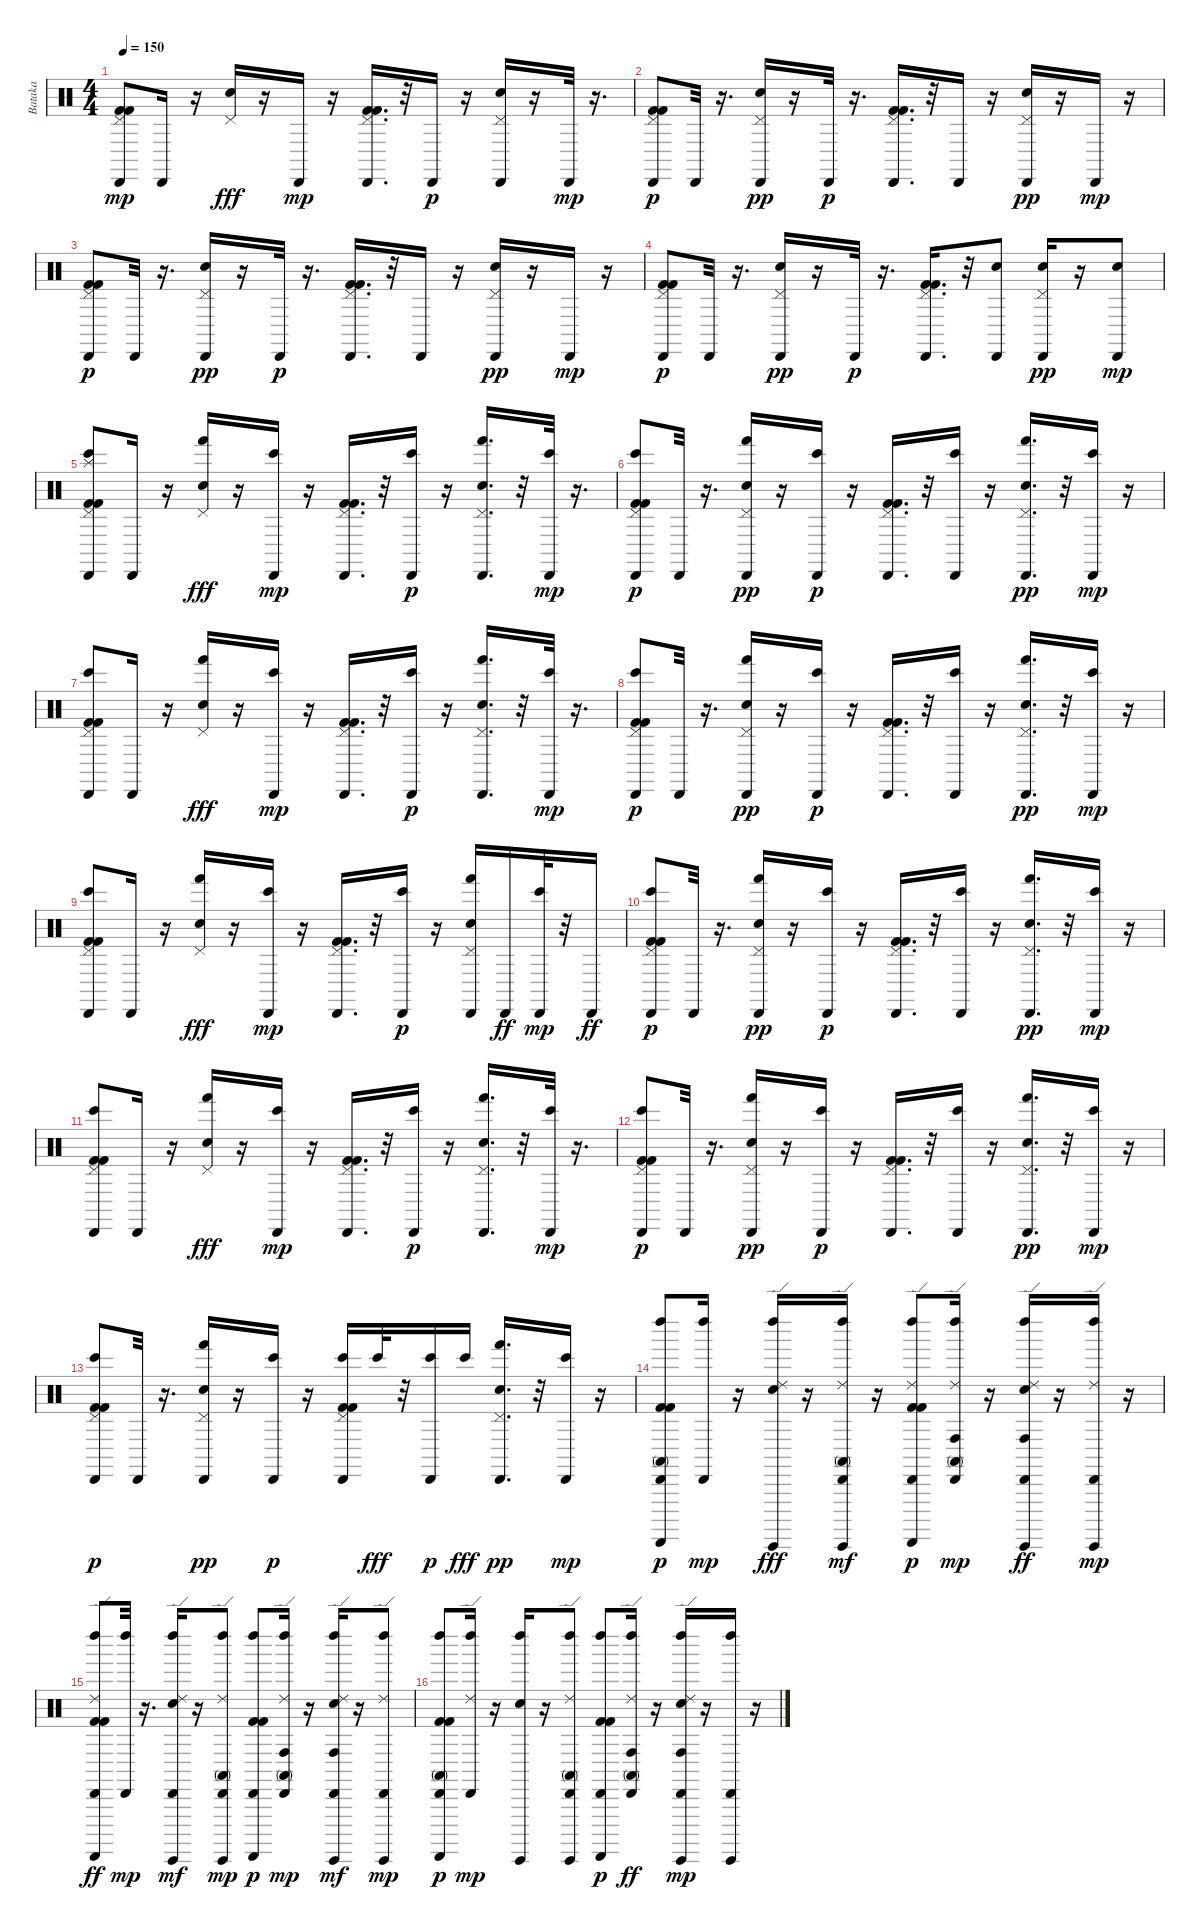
\track ("Bataka" "Bataka") {instrument percussion}
\staff {score}
\articulation defaults
\ts (4 4)
\tempo 150
\clef neutral
\ks c
("Kick (hit) 2" "Kick (hit) 2" "Pedal Hi-Hat (hit)" "Cabasa (hit)").8{dy mp} "Cabasa (hit)".16 r.16 ("Electric Snare (hit)" "Pedal Hi-Hat (hit)").16{dy fff} r.16 "Cabasa (hit)".16{dy mp} r.16 ("Kick (hit) 2" "Kick (hit) 2" "Pedal Hi-Hat (hit)" "Cabasa (hit)").16{d} r.32 "Cabasa (hit)".16{dy p} r.16 ("Electric Snare (hit)" "Pedal Hi-Hat (hit)" "Cabasa (hit)").16 r.16 "Cabasa (hit)".32{dy mp} r.16{d} |
("Kick (hit) 2" "Kick (hit) 2" "Pedal Hi-Hat (hit)" "Cabasa (hit)").8{dy p} "Cabasa (hit)".32 r.16{d} ("Electric Snare (hit)" "Pedal Hi-Hat (hit)" "Cabasa (hit)").16{dy pp} r.16 "Cabasa (hit)".32{dy p} r.16{d} ("Kick (hit) 2" "Kick (hit) 2" "Pedal Hi-Hat (hit)" "Cabasa (hit)").16{d} r.32 "Cabasa (hit)".16 r.16 ("Electric Snare (hit)" "Pedal Hi-Hat (hit)" "Cabasa (hit)").16{dy pp} r.16 "Cabasa (hit)".16{dy mp} r.16 |
("Kick (hit) 2" "Kick (hit) 2" "Pedal Hi-Hat (hit)" "Cabasa (hit)").8{dy p} "Cabasa (hit)".32 r.16{d} ("Electric Snare (hit)" "Pedal Hi-Hat (hit)" "Cabasa (hit)").16{dy pp} r.16 "Cabasa (hit)".32{dy p} r.16{d} ("Kick (hit) 2" "Kick (hit) 2" "Pedal Hi-Hat (hit)" "Cabasa (hit)").16{d} r.32 "Cabasa (hit)".16 r.16 ("Electric Snare (hit)" "Pedal Hi-Hat (hit)" "Cabasa (hit)").16{dy pp} r.16 "Cabasa (hit)".16{dy mp} r.16 |
("Kick (hit) 2" "Kick (hit) 2" "Pedal Hi-Hat (hit)" "Cabasa (hit)").8{dy p} "Cabasa (hit)".32 r.16{d} ("Electric Snare (hit)" "Pedal Hi-Hat (hit)" "Cabasa (hit)").16{dy pp} r.16 "Cabasa (hit)".32{dy p} r.16{d} ("Kick (hit) 2" "Kick (hit) 2" "Pedal Hi-Hat (hit)" "Cabasa (hit)").16{d} r.32 ("Electric Snare (hit)" "Cabasa (hit)").8 ("Electric Snare (hit)" "Pedal Hi-Hat (hit)" "Cabasa (hit)").16{dy pp} r.16 ("Electric Snare (hit)" "Cabasa (hit)").8{dy mp} |
("Kick (hit) 2" "Kick (hit) 2" "Pedal Hi-Hat (hit)" "Bongo High (hit)" "Cabasa (hit)" "Splash (hit)").8 "Cabasa (hit)".16 r.16 ("Electric Snare (hit)" "Pedal Hi-Hat (hit)" "Hand (hit)").16{dy fff} r.16 ("Bongo High (hit)" "Cabasa (hit)").16{dy mp} r.16 ("Kick (hit) 2" "Kick (hit) 2" "Pedal Hi-Hat (hit)" "Cabasa (hit)").16{d} r.32 ("Bongo High (hit)" "Cabasa (hit)").16{dy p} r.16 ("Electric Snare (hit)" "Pedal Hi-Hat (hit)" "Hand (hit)" "Cabasa (hit)").16{d} r.32 ("Bongo High (hit)" "Cabasa (hit)").32{dy mp} r.16{d} |
("Kick (hit) 2" "Kick (hit) 2" "Pedal Hi-Hat (hit)" "Bongo High (hit)" "Cabasa (hit)").8{dy p} "Cabasa (hit)".32 r.16{d} ("Electric Snare (hit)" "Pedal Hi-Hat (hit)" "Hand (hit)" "Cabasa (hit)").16{dy pp} r.16 ("Bongo High (hit)" "Cabasa (hit)").16{dy p} r.16 ("Kick (hit) 2" "Kick (hit) 2" "Pedal Hi-Hat (hit)" "Cabasa (hit)").16{d} r.32 ("Bongo High (hit)" "Cabasa (hit)").16 r.16 ("Electric Snare (hit)" "Pedal Hi-Hat (hit)" "Hand (hit)" "Cabasa (hit)").16{d dy pp} r.32 ("Bongo High (hit)" "Cabasa (hit)").16{dy mp} r.16 |
("Kick (hit) 2" "Kick (hit) 2" "Pedal Hi-Hat (hit)" "Bongo High (hit)" "Cabasa (hit)").8 "Cabasa (hit)".16 r.16 ("Electric Snare (hit)" "Pedal Hi-Hat (hit)" "Hand (hit)").16{dy fff} r.16 ("Bongo High (hit)" "Cabasa (hit)").16{dy mp} r.16 ("Kick (hit) 2" "Kick (hit) 2" "Pedal Hi-Hat (hit)" "Cabasa (hit)").16{d} r.32 ("Bongo High (hit)" "Cabasa (hit)").16{dy p} r.16 ("Electric Snare (hit)" "Pedal Hi-Hat (hit)" "Hand (hit)" "Cabasa (hit)").16{d} r.32 ("Bongo High (hit)" "Cabasa (hit)").32{dy mp} r.16{d} |
("Kick (hit) 2" "Kick (hit) 2" "Pedal Hi-Hat (hit)" "Bongo High (hit)" "Cabasa (hit)").8{dy p} "Cabasa (hit)".32 r.16{d} ("Electric Snare (hit)" "Pedal Hi-Hat (hit)" "Hand (hit)" "Cabasa (hit)").16{dy pp} r.16 ("Bongo High (hit)" "Cabasa (hit)").16{dy p} r.16 ("Kick (hit) 2" "Kick (hit) 2" "Pedal Hi-Hat (hit)" "Cabasa (hit)").16{d} r.32 ("Bongo High (hit)" "Cabasa (hit)").16 r.16 ("Electric Snare (hit)" "Pedal Hi-Hat (hit)" "Hand (hit)" "Cabasa (hit)").16{d dy pp} r.32 ("Bongo High (hit)" "Cabasa (hit)").16{dy mp} r.16 |
("Kick (hit) 2" "Kick (hit) 2" "Pedal Hi-Hat (hit)" "Bongo High (hit)" "Cabasa (hit)").8 "Cabasa (hit)".16 r.16 ("Electric Snare (hit)" "Pedal Hi-Hat (hit)" "Hand (hit)").16{dy fff} r.16 ("Bongo High (hit)" "Cabasa (hit)").16{dy mp} r.16 ("Kick (hit) 2" "Kick (hit) 2" "Pedal Hi-Hat (hit)" "Cabasa (hit)").16{d} r.32 ("Bongo High (hit)" "Cabasa (hit)").16{dy p} r.16 ("Electric Snare (hit)" "Pedal Hi-Hat (hit)" "Hand (hit)" "Cabasa (hit)").16 "Cabasa (hit)".16{dy ff} ("Bongo High (hit)" "Cabasa (hit)").32{dy mp} r.32 "Cabasa (hit)".16{dy ff} |
("Kick (hit) 2" "Kick (hit) 2" "Pedal Hi-Hat (hit)" "Bongo High (hit)" "Cabasa (hit)").8{dy p} "Cabasa (hit)".32 r.16{d} ("Electric Snare (hit)" "Pedal Hi-Hat (hit)" "Hand (hit)" "Cabasa (hit)").16{dy pp} r.16 ("Bongo High (hit)" "Cabasa (hit)").16{dy p} r.16 ("Kick (hit) 2" "Kick (hit) 2" "Pedal Hi-Hat (hit)" "Cabasa (hit)").16{d} r.32 ("Bongo High (hit)" "Cabasa (hit)").16 r.16 ("Electric Snare (hit)" "Pedal Hi-Hat (hit)" "Hand (hit)" "Cabasa (hit)").16{d dy pp} r.32 ("Bongo High (hit)" "Cabasa (hit)").16{dy mp} r.16 |
("Kick (hit) 2" "Kick (hit) 2" "Pedal Hi-Hat (hit)" "Bongo High (hit)" "Cabasa (hit)").8 "Cabasa (hit)".16 r.16 ("Electric Snare (hit)" "Pedal Hi-Hat (hit)" "Hand (hit)").16{dy fff} r.16 ("Bongo High (hit)" "Cabasa (hit)").16{dy mp} r.16 ("Kick (hit) 2" "Kick (hit) 2" "Pedal Hi-Hat (hit)" "Cabasa (hit)").16{d} r.32 ("Bongo High (hit)" "Cabasa (hit)").16{dy p} r.16 ("Electric Snare (hit)" "Pedal Hi-Hat (hit)" "Hand (hit)" "Cabasa (hit)").16{d} r.32 ("Bongo High (hit)" "Cabasa (hit)").32{dy mp} r.16{d} |
("Kick (hit) 2" "Kick (hit) 2" "Pedal Hi-Hat (hit)" "Bongo High (hit)" "Cabasa (hit)").8{dy p} "Cabasa (hit)".32 r.16{d} ("Electric Snare (hit)" "Pedal Hi-Hat (hit)" "Hand (hit)" "Cabasa (hit)").16{dy pp} r.16 ("Bongo High (hit)" "Cabasa (hit)").16{dy p} r.16 ("Kick (hit) 2" "Kick (hit) 2" "Pedal Hi-Hat (hit)" "Cabasa (hit)").16{d} r.32 ("Bongo High (hit)" "Cabasa (hit)").16 r.16 ("Electric Snare (hit)" "Pedal Hi-Hat (hit)" "Hand (hit)" "Cabasa (hit)").16{d dy pp} r.32 ("Bongo High (hit)" "Cabasa (hit)").16{dy mp} r.16 |
("Kick (hit) 2" "Kick (hit) 2" "Pedal Hi-Hat (hit)" "Bongo High (hit)" "Cabasa (hit)").8{dy p} "Cabasa (hit)".32 r.16{d} ("Electric Snare (hit)" "Pedal Hi-Hat (hit)" "Hand (hit)" "Cabasa (hit)").16{dy pp} r.16 ("Bongo High (hit)" "Cabasa (hit)").16{dy p} r.16 ("Kick (hit) 2" "Kick (hit) 2" "Pedal Hi-Hat (hit)" "Bongo High (hit)" "Cabasa (hit)").16 "Bongo High (hit)".32{dy fff} r.32 ("Bongo High (hit)" "Cabasa (hit)").16{dy p} "Bongo High (hit)".16{dy fff} ("Electric Snare (hit)" "Pedal Hi-Hat (hit)" "Hand (hit)" "Cabasa (hit)").16{d dy pp} r.32 ("Bongo High (hit)" "Cabasa (hit)").16{dy mp} r.16 |
("Kick (hit) 2" "Kick (hit) 2" "Conga high (mute)" "Cabasa (hit)" "Guiro (scrap-return)" "Left Maraca (hit)").8{dy p} ("Cabasa (hit)" "Left Maraca (hit)").16{dy mp} r.16 ("Electric Snare (hit)" "Guiro (hit)" "Left Maraca (hit)" "Ride (edge) 2").16{dy fff} r.16 ("Conga high (mute)" "Cabasa (hit)" "Guiro (hit)" "Left Maraca (hit)" "Ride (edge) 2").16{dy mf} r.16 ("Kick (hit) 2" "Kick (hit) 2" "Cabasa (hit)" "Guiro (scrap-return)" "Left Maraca (hit)" "Ride (edge) 2").8{dy p} ("Conga high (hit)" "Conga high (mute)" "Cabasa (hit)" "Left Maraca (hit)" "Ride (edge) 2").16{dy mp} r.16 ("Electric Snare (hit)" "Conga high (hit)" "Cabasa (hit)" "Guiro (hit)" "Left Maraca (hit)" "Ride (edge) 2").16{dy ff} r.16 ("Cabasa (hit)" "Guiro (hit)" "Left Maraca (hit)" "Ride (edge) 2").16{dy mp} r.16 |
("Kick (hit) 2" "Kick (hit) 2" "Cabasa (hit)" "Guiro (scrap-return)" "Left Maraca (hit)" "Ride (edge) 2").8{dy ff} ("Cabasa (hit)" "Left Maraca (hit)").32{dy mp} r.16{d} ("Electric Snare (hit)" "Cabasa (hit)" "Guiro (hit)" "Left Maraca (hit)" "Ride (edge) 2").16{dy mf} r.16 ("Conga high (mute)" "Cabasa (hit)" "Guiro (hit)" "Left Maraca (hit)" "Ride (edge) 2").8{dy mp} ("Kick (hit) 2" "Kick (hit) 2" "Cabasa (hit)" "Guiro (scrap-return)" "Left Maraca (hit)").8{dy p} ("Conga high (hit)" "Conga high (mute)" "Cabasa (hit)" "Left Maraca (hit)" "Ride (edge) 2").16{dy mp} r.16 ("Electric Snare (hit)" "Conga high (hit)" "Cabasa (hit)" "Guiro (hit)" "Left Maraca (hit)" "Ride (edge) 2").16{dy mf} r.16 ("Cabasa (hit)" "Guiro (hit)" "Left Maraca (hit)" "Ride (edge) 2").8{dy mp} |
("Kick (hit) 2" "Kick (hit) 2" "Conga high (mute)" "Cabasa (hit)" "Guiro (scrap-return)" "Left Maraca (hit)").8{dy p} ("Cabasa (hit)" "Left Maraca (hit)" "Ride (edge) 2").16{dy mp} r.16 ("Electric Snare (hit)" "Guiro (hit)" "Left Maraca (hit)").16 r.16 ("Conga high (mute)" "Cabasa (hit)" "Guiro (hit)" "Left Maraca (hit)" "Ride (edge) 2").8 ("Kick (hit) 2" "Kick (hit) 2" "Cabasa (hit)" "Guiro (scrap-return)" "Left Maraca (hit)").8{dy p} ("Conga high (hit)" "Conga high (mute)" "Cabasa (hit)" "Left Maraca (hit)" "Ride (edge) 2").16{dy ff} r.16 ("Electric Snare (hit)" "Conga high (hit)" "Cabasa (hit)" "Guiro (hit)" "Left Maraca (hit)" "Ride (edge) 2").16{dy mp} r.16 ("Cabasa (hit)" "Guiro (hit)" "Left Maraca (hit)").16 r.16
